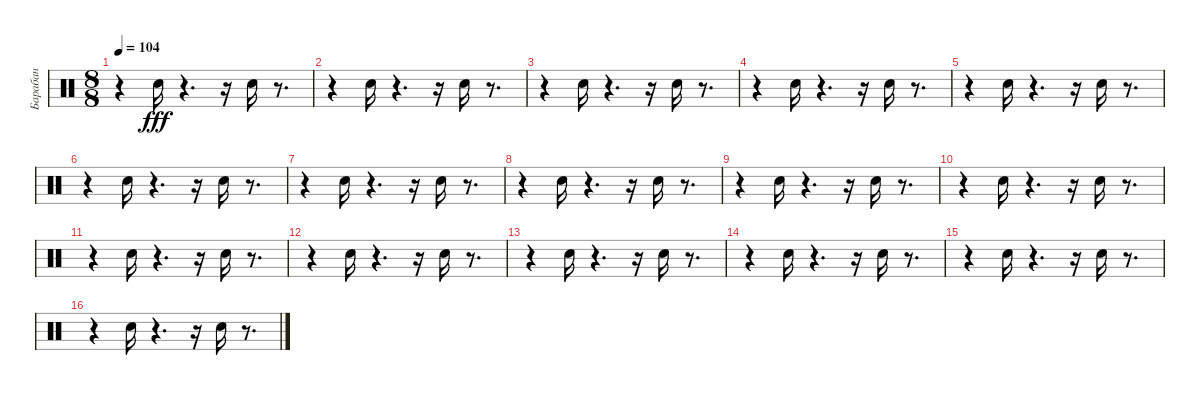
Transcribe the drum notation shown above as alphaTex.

\track ("Барабан" "Барабан") {instrument percussion}
\staff {score}
\articulation defaults
\ts (8 8)
\tempo 104
\clef neutral
\ks c
r.4{dy fff} "Snare (hit) 2".16 r.4{d} r.16 "Snare (hit) 2".16 r.8{d} |
r.4 "Snare (hit) 2".16 r.4{d} r.16 "Snare (hit) 2".16 r.8{d} |
r.4 "Snare (hit) 2".16 r.4{d} r.16 "Snare (hit) 2".16 r.8{d} |
r.4 "Snare (hit) 2".16 r.4{d} r.16 "Snare (hit) 2".16 r.8{d} |
r.4 "Snare (hit) 2".16 r.4{d} r.16 "Snare (hit) 2".16 r.8{d} |
r.4 "Snare (hit) 2".16 r.4{d} r.16 "Snare (hit) 2".16 r.8{d} |
r.4 "Snare (hit) 2".16 r.4{d} r.16 "Snare (hit) 2".16 r.8{d} |
r.4 "Snare (hit) 2".16 r.4{d} r.16 "Snare (hit) 2".16 r.8{d} |
r.4 "Snare (hit) 2".16 r.4{d} r.16 "Snare (hit) 2".16 r.8{d} |
r.4 "Snare (hit) 2".16 r.4{d} r.16 "Snare (hit) 2".16 r.8{d} |
r.4 "Snare (hit) 2".16 r.4{d} r.16 "Snare (hit) 2".16 r.8{d} |
r.4 "Snare (hit) 2".16 r.4{d} r.16 "Snare (hit) 2".16 r.8{d} |
r.4 "Snare (hit) 2".16 r.4{d} r.16 "Snare (hit) 2".16 r.8{d} |
r.4 "Snare (hit) 2".16 r.4{d} r.16 "Snare (hit) 2".16 r.8{d} |
r.4 "Snare (hit) 2".16 r.4{d} r.16 "Snare (hit) 2".16 r.8{d} |
r.4 "Snare (hit) 2".16 r.4{d} r.16 "Snare (hit) 2".16 r.8{d}
